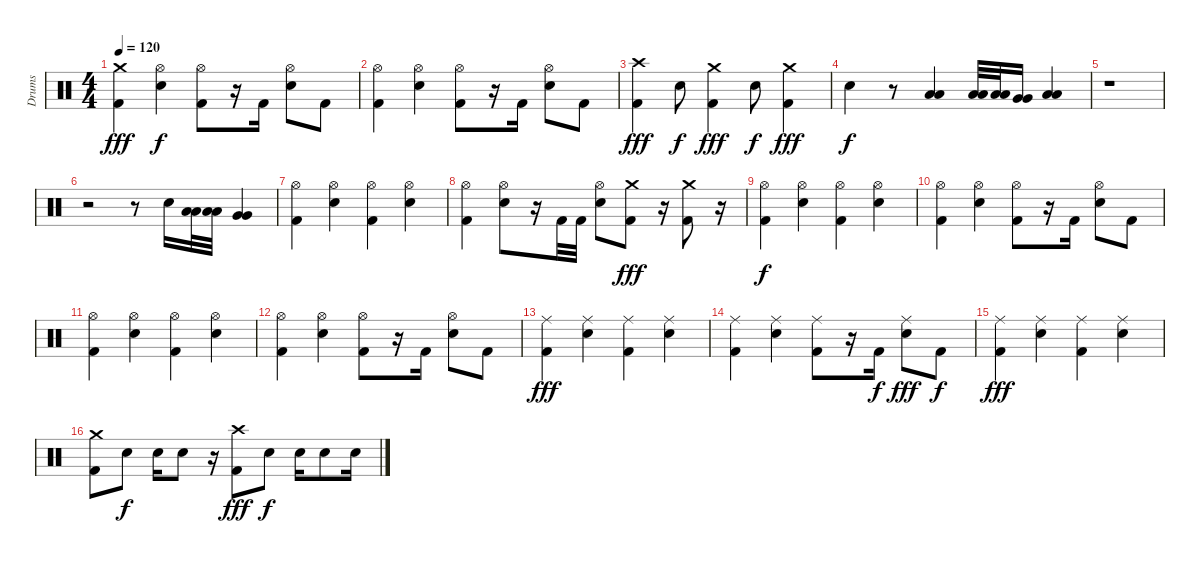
\track ("Drums" "Drums") {instrument percussion}
\staff {score}
\articulation defaults
\ts (4 4)
\tempo 120
\clef neutral
\ks c
("Kick (hit) 2" "Crash medium (hit)").4{dy fff} ("Electric Snare (hit)" "Hi-Hat (open)").4{dy f} ("Kick (hit) 2" "Hi-Hat (open)").8 r.16 "Kick (hit) 2".16 ("Electric Snare (hit)" "Hi-Hat (open)").8 "Kick (hit) 2".8 |
("Kick (hit) 2" "Hi-Hat (open)").4 ("Electric Snare (hit)" "Hi-Hat (open)").4 ("Kick (hit) 2" "Hi-Hat (open)").8 r.16 "Kick (hit) 2".16 ("Electric Snare (hit)" "Hi-Hat (open)").8 "Kick (hit) 2".8 |
("Kick (hit) 2" "Crash high (hit)").4{dy fff} "Electric Snare (hit)".8{dy f} ("Kick (hit) 2" "Crash medium (hit)").4{dy fff} "Electric Snare (hit)".8{dy f} ("Kick (hit) 2" "Crash medium (hit)").4{dy fff} |
"Electric Snare (hit)".4{dy f} r.8 ("Low Tom (hit)" "Low Tom (hit)").4 ("Low Tom (hit)" "Low Tom (hit)").32 ("Low Tom (hit)" "Low Tom (hit)").32 ("Very Low Tom (hit)" "Very Low Tom (hit)").16 ("Low Floor Tom (hit)" "Low Floor Tom (hit)").4 |
r.1 |
r.2 r.8 "Electric Snare (hit)".16 ("Low Tom (hit)" "Low Tom (hit)").32 ("Low Tom (hit)" "Low Tom (hit)").32 ("Very Low Tom (hit)" "Very Low Tom (hit)").4 |
("Kick (hit) 2" "Hi-Hat (open)").4 ("Electric Snare (hit)" "Hi-Hat (open)").4 ("Kick (hit) 2" "Hi-Hat (open)").4 ("Electric Snare (hit)" "Hi-Hat (open)").4 |
("Kick (hit) 2" "Hi-Hat (open)").4 ("Electric Snare (hit)" "Hi-Hat (open)").8 r.16 "Kick (hit) 2".32 "Kick (hit) 2".32 ("Electric Snare (hit)" "Hi-Hat (open)").8 ("Kick (hit) 2" "Crash medium (hit)").8{dy fff} r.16 ("Kick (hit) 2" "Crash medium (hit)").8 r.16 |
("Kick (hit) 2" "Hi-Hat (open)").4{dy f} ("Electric Snare (hit)" "Hi-Hat (open)").4 ("Kick (hit) 2" "Hi-Hat (open)").4 ("Electric Snare (hit)" "Hi-Hat (open)").4 |
("Kick (hit) 2" "Hi-Hat (open)").4 ("Electric Snare (hit)" "Hi-Hat (open)").4 ("Kick (hit) 2" "Hi-Hat (open)").8 r.16 "Kick (hit) 2".16 ("Electric Snare (hit)" "Hi-Hat (open)").8 "Kick (hit) 2".8 |
("Kick (hit) 2" "Hi-Hat (open)").4 ("Electric Snare (hit)" "Hi-Hat (open)").4 ("Kick (hit) 2" "Hi-Hat (open)").4 ("Electric Snare (hit)" "Hi-Hat (open)").4 |
("Kick (hit) 2" "Hi-Hat (open)").4 ("Electric Snare (hit)" "Hi-Hat (open)").4 ("Kick (hit) 2" "Hi-Hat (open)").8 r.16 "Kick (hit) 2".16 ("Electric Snare (hit)" "Hi-Hat (open)").8 "Kick (hit) 2".8 |
("Kick (hit) 2" "Ride (middle)").4{dy fff} ("Electric Snare (hit)" "Ride (middle)").4 ("Kick (hit) 2" "Ride (middle)").4 ("Electric Snare (hit)" "Ride (middle)").4 |
("Kick (hit) 2" "Ride (middle)").4 ("Electric Snare (hit)" "Ride (middle)").4 ("Kick (hit) 2" "Ride (middle)").8 r.16 "Kick (hit) 2".16{dy f} ("Electric Snare (hit)" "Ride (middle)").8{dy fff} "Kick (hit) 2".8{dy f} |
("Kick (hit) 2" "Ride (middle)").4{dy fff} ("Electric Snare (hit)" "Ride (middle)").4 ("Kick (hit) 2" "Ride (middle)").4 ("Electric Snare (hit)" "Ride (middle)").4 |
("Kick (hit) 2" "Crash medium (hit)").8 "Electric Snare (hit)".8{dy f} "Electric Snare (hit)".16 "Electric Snare (hit)".8 r.16 ("Kick (hit) 2" "Crash high (hit)").8{dy fff} "Electric Snare (hit)".8{dy f} "Electric Snare (hit)".16 "Electric Snare (hit)".8 "Electric Snare (hit)".16
